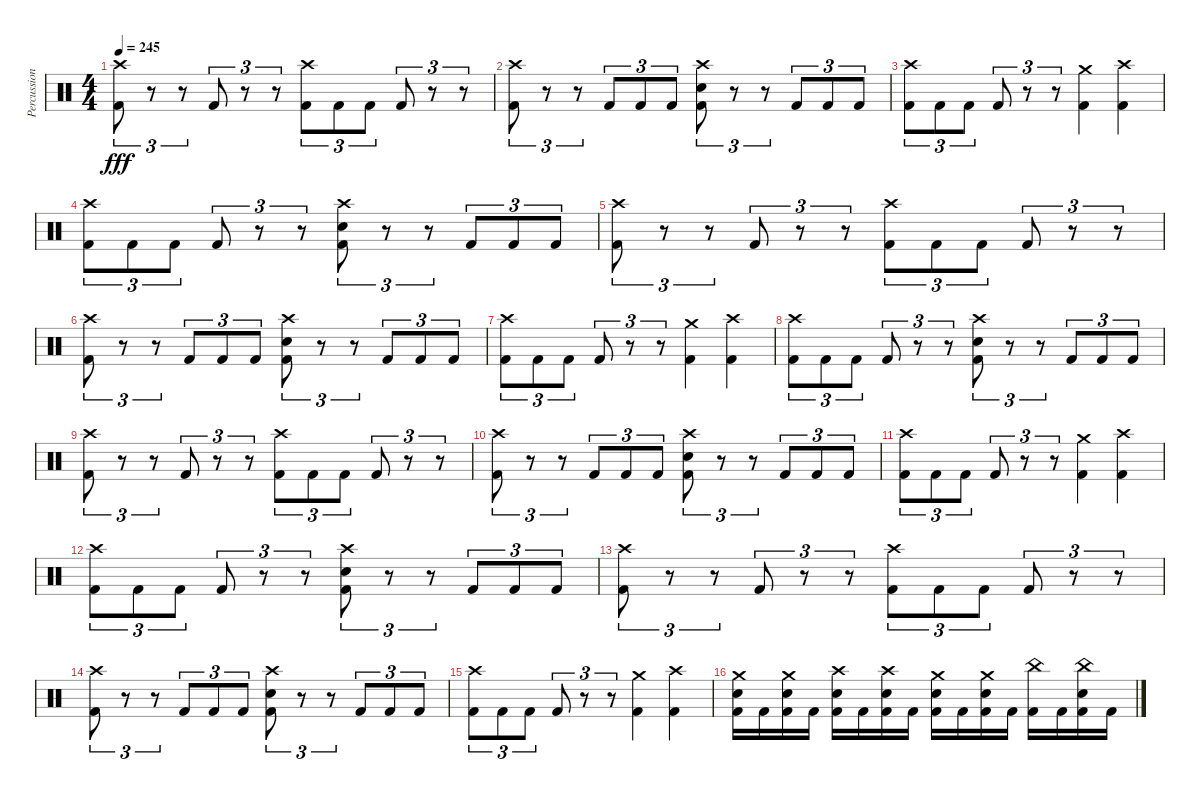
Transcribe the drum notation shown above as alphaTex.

\track ("Percussion" "Percussion") {instrument percussion bank 177}
\staff {score}
\articulation defaults
\ts (4 4)
\tempo 245
\clef neutral
\ks c
("Crash high (hit)" "Kick (hit) 2").8{tu (3 2) dy fff} r.8{tu (3 2)} r.8{tu (3 2)} "Kick (hit) 2".8{tu (3 2)} r.8{tu (3 2)} r.8{tu (3 2)} ("Crash high (hit)" "Kick (hit) 2").8{tu (3 2)} "Kick (hit) 2".8{tu (3 2)} "Kick (hit) 2".8{tu (3 2)} "Kick (hit) 2".8{tu (3 2)} r.8{tu (3 2)} r.8{tu (3 2)} |
("Crash high (hit)" "Kick (hit) 2").8{tu (3 2)} r.8{tu (3 2)} r.8{tu (3 2)} "Kick (hit) 2".8{tu (3 2)} "Kick (hit) 2".8{tu (3 2)} "Kick (hit) 2".8{tu (3 2)} ("Crash high (hit)" "Electric Snare (hit)" "Kick (hit) 2").8{tu (3 2)} r.8{tu (3 2)} r.8{tu (3 2)} "Kick (hit) 2".8{tu (3 2)} "Kick (hit) 2".8{tu (3 2)} "Kick (hit) 2".8{tu (3 2)} |
("Crash high (hit)" "Kick (hit) 2").8{tu (3 2)} "Kick (hit) 2".8{tu (3 2)} "Kick (hit) 2".8{tu (3 2)} "Kick (hit) 2".8{tu (3 2)} r.8{tu (3 2)} r.8{tu (3 2)} ("Crash medium (hit)" "Kick (hit) 2").4 ("Crash high (hit)" "Kick (hit) 2").4 |
("Crash high (hit)" "Kick (hit) 2").8{tu (3 2)} "Kick (hit) 2".8{tu (3 2)} "Kick (hit) 2".8{tu (3 2)} "Kick (hit) 2".8{tu (3 2)} r.8{tu (3 2)} r.8{tu (3 2)} ("Crash high (hit)" "Electric Snare (hit)" "Kick (hit) 2").8{tu (3 2)} r.8{tu (3 2)} r.8{tu (3 2)} "Kick (hit) 2".8{tu (3 2)} "Kick (hit) 2".8{tu (3 2)} "Kick (hit) 2".8{tu (3 2)} |
("Crash high (hit)" "Kick (hit) 2").8{tu (3 2)} r.8{tu (3 2)} r.8{tu (3 2)} "Kick (hit) 2".8{tu (3 2)} r.8{tu (3 2)} r.8{tu (3 2)} ("Crash high (hit)" "Kick (hit) 2").8{tu (3 2)} "Kick (hit) 2".8{tu (3 2)} "Kick (hit) 2".8{tu (3 2)} "Kick (hit) 2".8{tu (3 2)} r.8{tu (3 2)} r.8{tu (3 2)} |
("Crash high (hit)" "Kick (hit) 2").8{tu (3 2)} r.8{tu (3 2)} r.8{tu (3 2)} "Kick (hit) 2".8{tu (3 2)} "Kick (hit) 2".8{tu (3 2)} "Kick (hit) 2".8{tu (3 2)} ("Crash high (hit)" "Electric Snare (hit)" "Kick (hit) 2").8{tu (3 2)} r.8{tu (3 2)} r.8{tu (3 2)} "Kick (hit) 2".8{tu (3 2)} "Kick (hit) 2".8{tu (3 2)} "Kick (hit) 2".8{tu (3 2)} |
("Crash high (hit)" "Kick (hit) 2").8{tu (3 2)} "Kick (hit) 2".8{tu (3 2)} "Kick (hit) 2".8{tu (3 2)} "Kick (hit) 2".8{tu (3 2)} r.8{tu (3 2)} r.8{tu (3 2)} ("Crash medium (hit)" "Kick (hit) 2").4 ("Crash high (hit)" "Kick (hit) 2").4 |
("Crash high (hit)" "Kick (hit) 2").8{tu (3 2)} "Kick (hit) 2".8{tu (3 2)} "Kick (hit) 2".8{tu (3 2)} "Kick (hit) 2".8{tu (3 2)} r.8{tu (3 2)} r.8{tu (3 2)} ("Crash high (hit)" "Electric Snare (hit)" "Kick (hit) 2").8{tu (3 2)} r.8{tu (3 2)} r.8{tu (3 2)} "Kick (hit) 2".8{tu (3 2)} "Kick (hit) 2".8{tu (3 2)} "Kick (hit) 2".8{tu (3 2)} |
("Crash high (hit)" "Kick (hit) 2").8{tu (3 2)} r.8{tu (3 2)} r.8{tu (3 2)} "Kick (hit) 2".8{tu (3 2)} r.8{tu (3 2)} r.8{tu (3 2)} ("Crash high (hit)" "Kick (hit) 2").8{tu (3 2)} "Kick (hit) 2".8{tu (3 2)} "Kick (hit) 2".8{tu (3 2)} "Kick (hit) 2".8{tu (3 2)} r.8{tu (3 2)} r.8{tu (3 2)} |
("Crash high (hit)" "Kick (hit) 2").8{tu (3 2)} r.8{tu (3 2)} r.8{tu (3 2)} "Kick (hit) 2".8{tu (3 2)} "Kick (hit) 2".8{tu (3 2)} "Kick (hit) 2".8{tu (3 2)} ("Crash high (hit)" "Electric Snare (hit)" "Kick (hit) 2").8{tu (3 2)} r.8{tu (3 2)} r.8{tu (3 2)} "Kick (hit) 2".8{tu (3 2)} "Kick (hit) 2".8{tu (3 2)} "Kick (hit) 2".8{tu (3 2)} |
("Crash high (hit)" "Kick (hit) 2").8{tu (3 2)} "Kick (hit) 2".8{tu (3 2)} "Kick (hit) 2".8{tu (3 2)} "Kick (hit) 2".8{tu (3 2)} r.8{tu (3 2)} r.8{tu (3 2)} ("Crash medium (hit)" "Kick (hit) 2").4 ("Crash high (hit)" "Kick (hit) 2").4 |
("Crash high (hit)" "Kick (hit) 2").8{tu (3 2)} "Kick (hit) 2".8{tu (3 2)} "Kick (hit) 2".8{tu (3 2)} "Kick (hit) 2".8{tu (3 2)} r.8{tu (3 2)} r.8{tu (3 2)} ("Crash high (hit)" "Electric Snare (hit)" "Kick (hit) 2").8{tu (3 2)} r.8{tu (3 2)} r.8{tu (3 2)} "Kick (hit) 2".8{tu (3 2)} "Kick (hit) 2".8{tu (3 2)} "Kick (hit) 2".8{tu (3 2)} |
("Crash high (hit)" "Kick (hit) 2").8{tu (3 2)} r.8{tu (3 2)} r.8{tu (3 2)} "Kick (hit) 2".8{tu (3 2)} r.8{tu (3 2)} r.8{tu (3 2)} ("Crash high (hit)" "Kick (hit) 2").8{tu (3 2)} "Kick (hit) 2".8{tu (3 2)} "Kick (hit) 2".8{tu (3 2)} "Kick (hit) 2".8{tu (3 2)} r.8{tu (3 2)} r.8{tu (3 2)} |
("Crash high (hit)" "Kick (hit) 2").8{tu (3 2)} r.8{tu (3 2)} r.8{tu (3 2)} "Kick (hit) 2".8{tu (3 2)} "Kick (hit) 2".8{tu (3 2)} "Kick (hit) 2".8{tu (3 2)} ("Crash high (hit)" "Electric Snare (hit)" "Kick (hit) 2").8{tu (3 2)} r.8{tu (3 2)} r.8{tu (3 2)} "Kick (hit) 2".8{tu (3 2)} "Kick (hit) 2".8{tu (3 2)} "Kick (hit) 2".8{tu (3 2)} |
("Crash high (hit)" "Kick (hit) 2").8{tu (3 2)} "Kick (hit) 2".8{tu (3 2)} "Kick (hit) 2".8{tu (3 2)} "Kick (hit) 2".8{tu (3 2)} r.8{tu (3 2)} r.8{tu (3 2)} ("Crash medium (hit)" "Kick (hit) 2").4 ("Crash high (hit)" "Kick (hit) 2").4 |
("Crash medium (hit)" "Electric Snare (hit)" "Kick (hit) 2").16 "Kick (hit) 2".16 ("Crash medium (hit)" "Electric Snare (hit)" "Kick (hit) 2").16 "Kick (hit) 2".16 ("Crash high (hit)" "Electric Snare (hit)" "Kick (hit) 2").16 "Kick (hit) 2".16 ("Crash high (hit)" "Electric Snare (hit)" "Kick (hit) 2").16 "Kick (hit) 2".16 ("Crash medium (hit)" "Electric Snare (hit)" "Kick (hit) 2").16 "Kick (hit) 2".16 ("Crash medium (hit)" "Electric Snare (hit)" "Kick (hit) 2").16 "Kick (hit) 2".16 ("China (hit)" "Kick (hit) 2").16 "Kick (hit) 2".16 ("China (hit)" "Electric Snare (hit)" "Kick (hit) 2").16 "Kick (hit) 2".16
